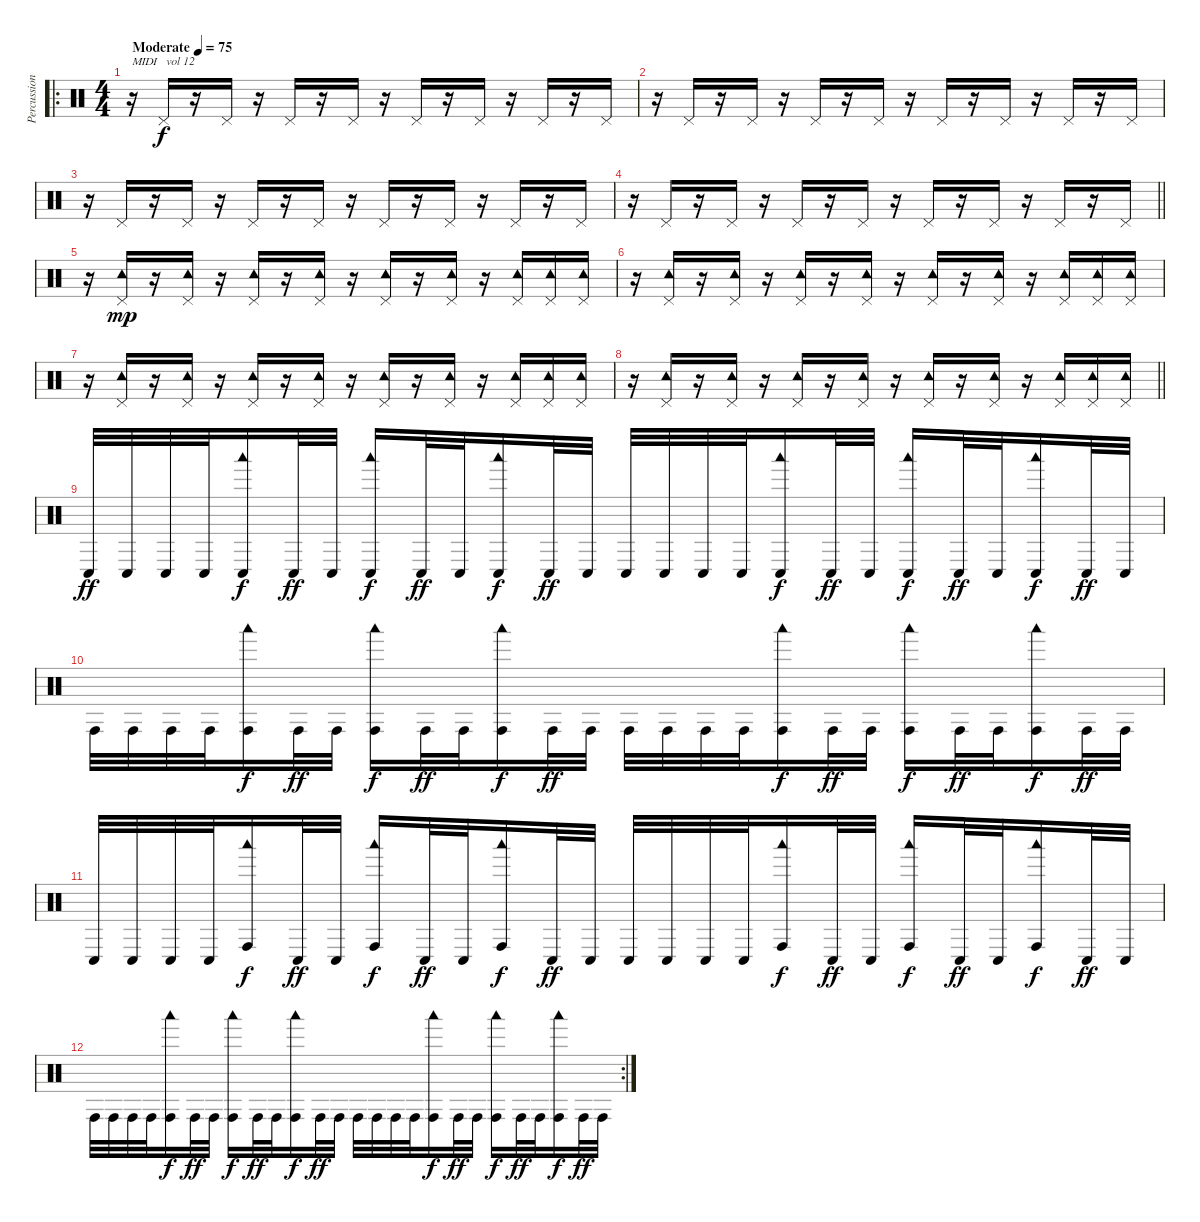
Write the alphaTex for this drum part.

\track ("Percussion" "Percussion") {instrument percussion}
\staff {score}
\articulation defaults
\ro
\ts (4 4)
\tempo (75 "Moderate")
\clef neutral
\ks c
r.16{txt "MIDI   vol 12" dy f volume 12} "Pedal Hi-Hat (hit)".16 r.16 "Pedal Hi-Hat (hit)".16 r.16 "Pedal Hi-Hat (hit)".16 r.16 "Pedal Hi-Hat (hit)".16 r.16 "Pedal Hi-Hat (hit)".16 r.16 "Pedal Hi-Hat (hit)".16 r.16 "Pedal Hi-Hat (hit)".16 r.16 "Pedal Hi-Hat (hit)".16 |
r.16 "Pedal Hi-Hat (hit)".16 r.16 "Pedal Hi-Hat (hit)".16 r.16 "Pedal Hi-Hat (hit)".16 r.16 "Pedal Hi-Hat (hit)".16 r.16 "Pedal Hi-Hat (hit)".16 r.16 "Pedal Hi-Hat (hit)".16 r.16 "Pedal Hi-Hat (hit)".16 r.16 "Pedal Hi-Hat (hit)".16 |
r.16 "Pedal Hi-Hat (hit)".16 r.16 "Pedal Hi-Hat (hit)".16 r.16 "Pedal Hi-Hat (hit)".16 r.16 "Pedal Hi-Hat (hit)".16 r.16 "Pedal Hi-Hat (hit)".16 r.16 "Pedal Hi-Hat (hit)".16 r.16 "Pedal Hi-Hat (hit)".16 r.16 "Pedal Hi-Hat (hit)".16 |
\barLineRight lightlight
r.16 "Pedal Hi-Hat (hit)".16 r.16 "Pedal Hi-Hat (hit)".16 r.16 "Pedal Hi-Hat (hit)".16 r.16 "Pedal Hi-Hat (hit)".16 r.16 "Pedal Hi-Hat (hit)".16 r.16 "Pedal Hi-Hat (hit)".16 r.16 "Pedal Hi-Hat (hit)".16 r.16 "Pedal Hi-Hat (hit)".16 |
r.16 ("Tambourine (hit)" "Pedal Hi-Hat (hit)").16{dy mp} r.16 ("Tambourine (hit)" "Pedal Hi-Hat (hit)").16 r.16 ("Tambourine (hit)" "Pedal Hi-Hat (hit)").16 r.16 ("Tambourine (hit)" "Pedal Hi-Hat (hit)").16 r.16 ("Tambourine (hit)" "Pedal Hi-Hat (hit)").16 r.16 ("Tambourine (hit)" "Pedal Hi-Hat (hit)").16 r.16 ("Tambourine (hit)" "Pedal Hi-Hat (hit)").16 ("Tambourine (hit)" "Pedal Hi-Hat (hit)").16 ("Tambourine (hit)" "Pedal Hi-Hat (hit)").16 |
r.16 ("Tambourine (hit)" "Pedal Hi-Hat (hit)").16 r.16 ("Tambourine (hit)" "Pedal Hi-Hat (hit)").16 r.16 ("Tambourine (hit)" "Pedal Hi-Hat (hit)").16 r.16 ("Tambourine (hit)" "Pedal Hi-Hat (hit)").16 r.16 ("Tambourine (hit)" "Pedal Hi-Hat (hit)").16 r.16 ("Tambourine (hit)" "Pedal Hi-Hat (hit)").16 r.16 ("Tambourine (hit)" "Pedal Hi-Hat (hit)").16 ("Tambourine (hit)" "Pedal Hi-Hat (hit)").16 ("Tambourine (hit)" "Pedal Hi-Hat (hit)").16 |
r.16 ("Tambourine (hit)" "Pedal Hi-Hat (hit)").16 r.16 ("Tambourine (hit)" "Pedal Hi-Hat (hit)").16 r.16 ("Tambourine (hit)" "Pedal Hi-Hat (hit)").16 r.16 ("Tambourine (hit)" "Pedal Hi-Hat (hit)").16 r.16 ("Tambourine (hit)" "Pedal Hi-Hat (hit)").16 r.16 ("Tambourine (hit)" "Pedal Hi-Hat (hit)").16 r.16 ("Tambourine (hit)" "Pedal Hi-Hat (hit)").16 ("Tambourine (hit)" "Pedal Hi-Hat (hit)").16 ("Tambourine (hit)" "Pedal Hi-Hat (hit)").16 |
\barLineRight lightlight
r.16 ("Tambourine (hit)" "Pedal Hi-Hat (hit)").16 r.16 ("Tambourine (hit)" "Pedal Hi-Hat (hit)").16 r.16 ("Tambourine (hit)" "Pedal Hi-Hat (hit)").16 r.16 ("Tambourine (hit)" "Pedal Hi-Hat (hit)").16 r.16 ("Tambourine (hit)" "Pedal Hi-Hat (hit)").16 r.16 ("Tambourine (hit)" "Pedal Hi-Hat (hit)").16 r.16 ("Tambourine (hit)" "Pedal Hi-Hat (hit)").16 ("Tambourine (hit)" "Pedal Hi-Hat (hit)").16 ("Tambourine (hit)" "Pedal Hi-Hat (hit)").16 |
"Conga low (hit)".32{dy ff volume 8} "Conga low (hit)".32 "Conga low (hit)".32 "Conga low (hit)".32 ("Conga low (hit)" "Woodblock low (hit)").16{dy f} "Conga low (hit)".32{dy ff} "Conga low (hit)".32 ("Conga low (hit)" "Woodblock low (hit)").16{dy f} "Conga low (hit)".32{dy ff} "Conga low (hit)".32 ("Conga low (hit)" "Woodblock low (hit)").16{dy f} "Conga low (hit)".32{dy ff} "Conga low (hit)".32 "Conga low (hit)".32 "Conga low (hit)".32 "Conga low (hit)".32 "Conga low (hit)".32 ("Conga low (hit)" "Woodblock low (hit)").16{dy f} "Conga low (hit)".32{dy ff} "Conga low (hit)".32 ("Conga low (hit)" "Woodblock low (hit)").16{dy f} "Conga low (hit)".32{dy ff} "Conga low (hit)".32 ("Conga low (hit)" "Woodblock low (hit)").16{dy f} "Conga low (hit)".32{dy ff} "Conga low (hit)".32 |
"Conga high (hit)".32 "Conga high (hit)".32 "Conga high (hit)".32 "Conga high (hit)".32 ("Conga high (hit)" "Woodblock low (hit)").16{dy f} "Conga high (hit)".32{dy ff} "Conga high (hit)".32 ("Conga high (hit)" "Woodblock low (hit)").16{dy f} "Conga high (hit)".32{dy ff} "Conga high (hit)".32 ("Conga high (hit)" "Woodblock low (hit)").16{dy f} "Conga high (hit)".32{dy ff} "Conga high (hit)".32 "Conga high (hit)".32 "Conga high (hit)".32 "Conga high (hit)".32 "Conga high (hit)".32 ("Conga high (hit)" "Woodblock low (hit)").16{dy f} "Conga high (hit)".32{dy ff} "Conga high (hit)".32 ("Conga high (hit)" "Woodblock low (hit)").16{dy f} "Conga high (hit)".32{dy ff} "Conga high (hit)".32 ("Conga high (hit)" "Woodblock low (hit)").16{dy f} "Conga high (hit)".32{dy ff} "Conga high (hit)".32 |
"Conga low (hit)".32 "Conga low (hit)".32 "Conga low (hit)".32 "Conga low (hit)".32 ("Conga high (hit)" "Woodblock low (hit)").16{dy f} "Conga low (hit)".32{dy ff} "Conga low (hit)".32 ("Conga high (hit)" "Woodblock low (hit)").16{dy f} "Conga low (hit)".32{dy ff} "Conga low (hit)".32 ("Conga high (hit)" "Woodblock low (hit)").16{dy f} "Conga low (hit)".32{dy ff} "Conga low (hit)".32 "Conga low (hit)".32 "Conga low (hit)".32 "Conga low (hit)".32 "Conga low (hit)".32 ("Conga high (hit)" "Woodblock low (hit)").16{dy f} "Conga low (hit)".32{dy ff} "Conga low (hit)".32 ("Conga high (hit)" "Woodblock low (hit)").16{dy f} "Conga low (hit)".32{dy ff} "Conga low (hit)".32 ("Conga high (hit)" "Woodblock low (hit)").16{dy f} "Conga low (hit)".32{dy ff} "Conga low (hit)".32 |
\rc 2 "Conga high (hit)".32 "Conga high (hit)".32 "Conga high (hit)".32 "Conga high (hit)".32
("Conga high (hit)" "Woodblock low (hit)").16{dy f} "Conga high (hit)".32{dy ff} "Conga high (hit)".32 ("Conga high (hit)" "Woodblock low (hit)").16{dy f} "Conga high (hit)".32{dy ff} "Conga high (hit)".32 ("Conga high (hit)" "Woodblock low (hit)").16{dy f} "Conga high (hit)".32{dy ff} "Conga high (hit)".32 "Conga high (hit)".32 "Conga high (hit)".32 "Conga high (hit)".32 "Conga high (hit)".32 ("Conga high (hit)" "Woodblock low (hit)").16{dy f} "Conga high (hit)".32{dy ff} "Conga high (hit)".32 ("Conga high (hit)" "Woodblock low (hit)").16{dy f} "Conga high (hit)".32{dy ff} "Conga high (hit)".32 ("Conga high (hit)" "Woodblock low (hit)").16{dy f} "Conga high (hit)".32{dy ff} "Conga high (hit)".32
